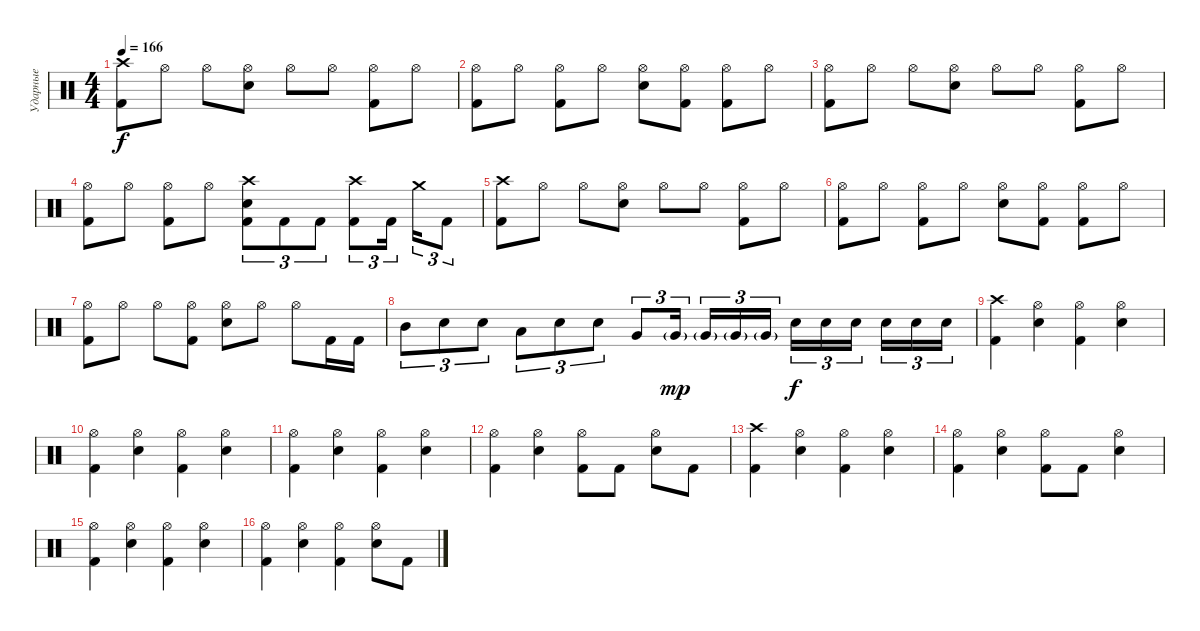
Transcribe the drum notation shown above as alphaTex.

\track ("Ударные" "Ударные") {instrument percussion}
\staff {score}
\articulation defaults
\ts (4 4)
\tempo 166
\clef neutral
\ks c
("Crash high (hit)" "Kick (hit) 2").8{dy f} "Hi-Hat (open)".8 "Hi-Hat (open)".8 ("Hi-Hat (open)" "Electric Snare (hit)").8 "Hi-Hat (open)".8 "Hi-Hat (open)".8 ("Hi-Hat (open)" "Kick (hit) 2").8 "Hi-Hat (open)".8 |
("Hi-Hat (open)" "Kick (hit) 2").8 "Hi-Hat (open)".8 ("Hi-Hat (open)" "Kick (hit) 2").8 "Hi-Hat (open)".8 ("Hi-Hat (open)" "Electric Snare (hit)").8 ("Hi-Hat (open)" "Kick (hit) 2").8 ("Hi-Hat (open)" "Kick (hit) 2").8 "Hi-Hat (open)".8 |
("Hi-Hat (open)" "Kick (hit) 2").8 "Hi-Hat (open)".8 "Hi-Hat (open)".8 ("Hi-Hat (open)" "Electric Snare (hit)").8 "Hi-Hat (open)".8 "Hi-Hat (open)".8 ("Hi-Hat (open)" "Kick (hit) 2").8 "Hi-Hat (open)".8 |
("Hi-Hat (open)" "Kick (hit) 2").8 "Hi-Hat (open)".8 ("Hi-Hat (open)" "Kick (hit) 2").8 "Hi-Hat (open)".8 ("Crash high (hit)" "Electric Snare (hit)" "Kick (hit) 2").8{tu (3 2)} "Kick (hit) 2".8{tu (3 2)} "Kick (hit) 2".8{tu (3 2)} ("Crash high (hit)" "Kick (hit) 2").8{tu (3 2)} "Kick (hit) 2".16{tu (3 2) beam splitsecondary} "Crash medium (hit)".16{tu (3 2)} "Kick (hit) 2".8{tu (3 2)} |
("Crash high (hit)" "Kick (hit) 2").8 "Hi-Hat (open)".8 "Hi-Hat (open)".8 ("Hi-Hat (open)" "Electric Snare (hit)").8 "Hi-Hat (open)".8 "Hi-Hat (open)".8 ("Hi-Hat (open)" "Kick (hit) 2").8 "Hi-Hat (open)".8 |
("Hi-Hat (open)" "Kick (hit) 2").8 "Hi-Hat (open)".8 ("Hi-Hat (open)" "Kick (hit) 2").8 "Hi-Hat (open)".8 ("Hi-Hat (open)" "Electric Snare (hit)").8 ("Hi-Hat (open)" "Kick (hit) 2").8 ("Hi-Hat (open)" "Kick (hit) 2").8 "Hi-Hat (open)".8 |
("Hi-Hat (open)" "Kick (hit) 2").8 "Hi-Hat (open)".8 "Hi-Hat (open)".8 ("Hi-Hat (open)" "Kick (hit) 2").8 ("Hi-Hat (open)" "Electric Snare (hit)").8 "Hi-Hat (open)".8 "Hi-Hat (open)".8 "Kick (hit) 2".16 "Kick (hit) 2".16 |
"Mid Tom (hit)".8{tu (3 2)} "Electric Snare (hit)".8{tu (3 2)} "Electric Snare (hit)".8{tu (3 2)} "Low Tom (hit)".8{tu (3 2)} "Electric Snare (hit)".8{tu (3 2)} "Electric Snare (hit)".8{tu (3 2)} "Very Low Tom (hit)".8{tu (3 2)} "Very Low Tom (hit)"{g}.16{tu (3 2) dy mp beam splitsecondary} "Very Low Tom (hit)"{g}.16{tu (3 2)} "Very Low Tom (hit)"{g}.16{tu (3 2)} "Very Low Tom (hit)"{g}.16{tu (3 2)} "Electric Snare (hit)".16{tu (3 2) dy f} "Electric Snare (hit)".16{tu (3 2)} "Electric Snare (hit)".16{tu (3 2) beam splitsecondary} "Electric Snare (hit)".16{tu (3 2)} "Electric Snare (hit)".16{tu (3 2)} "Electric Snare (hit)".16{tu (3 2)} |
("Crash high (hit)" "Kick (hit) 2").4 ("Hi-Hat (open)" "Electric Snare (hit)").4 ("Hi-Hat (open)" "Kick (hit) 2").4 ("Hi-Hat (open)" "Electric Snare (hit)").4 |
("Hi-Hat (open)" "Kick (hit) 2").4 ("Hi-Hat (open)" "Electric Snare (hit)").4 ("Hi-Hat (open)" "Kick (hit) 2").4 ("Hi-Hat (open)" "Electric Snare (hit)").4 |
("Hi-Hat (open)" "Kick (hit) 2").4 ("Hi-Hat (open)" "Electric Snare (hit)").4 ("Hi-Hat (open)" "Kick (hit) 2").4 ("Hi-Hat (open)" "Electric Snare (hit)").4 |
("Hi-Hat (open)" "Kick (hit) 2").4 ("Hi-Hat (open)" "Electric Snare (hit)").4 ("Hi-Hat (open)" "Kick (hit) 2").8 "Kick (hit) 2".8 ("Hi-Hat (open)" "Electric Snare (hit)").8 "Kick (hit) 2".8 |
("Crash high (hit)" "Kick (hit) 2").4 ("Hi-Hat (open)" "Electric Snare (hit)").4 ("Hi-Hat (open)" "Kick (hit) 2").4 ("Hi-Hat (open)" "Electric Snare (hit)").4 |
("Hi-Hat (open)" "Kick (hit) 2").4 ("Hi-Hat (open)" "Electric Snare (hit)").4 ("Hi-Hat (open)" "Kick (hit) 2").8 "Kick (hit) 2".8 ("Hi-Hat (open)" "Electric Snare (hit)").4 |
("Hi-Hat (open)" "Kick (hit) 2").4 ("Hi-Hat (open)" "Electric Snare (hit)").4 ("Hi-Hat (open)" "Kick (hit) 2").4 ("Hi-Hat (open)" "Electric Snare (hit)").4 |
("Hi-Hat (open)" "Kick (hit) 2").4 ("Hi-Hat (open)" "Electric Snare (hit)").4 ("Hi-Hat (open)" "Kick (hit) 2").4 ("Hi-Hat (open)" "Electric Snare (hit)").8 "Kick (hit) 2".8
